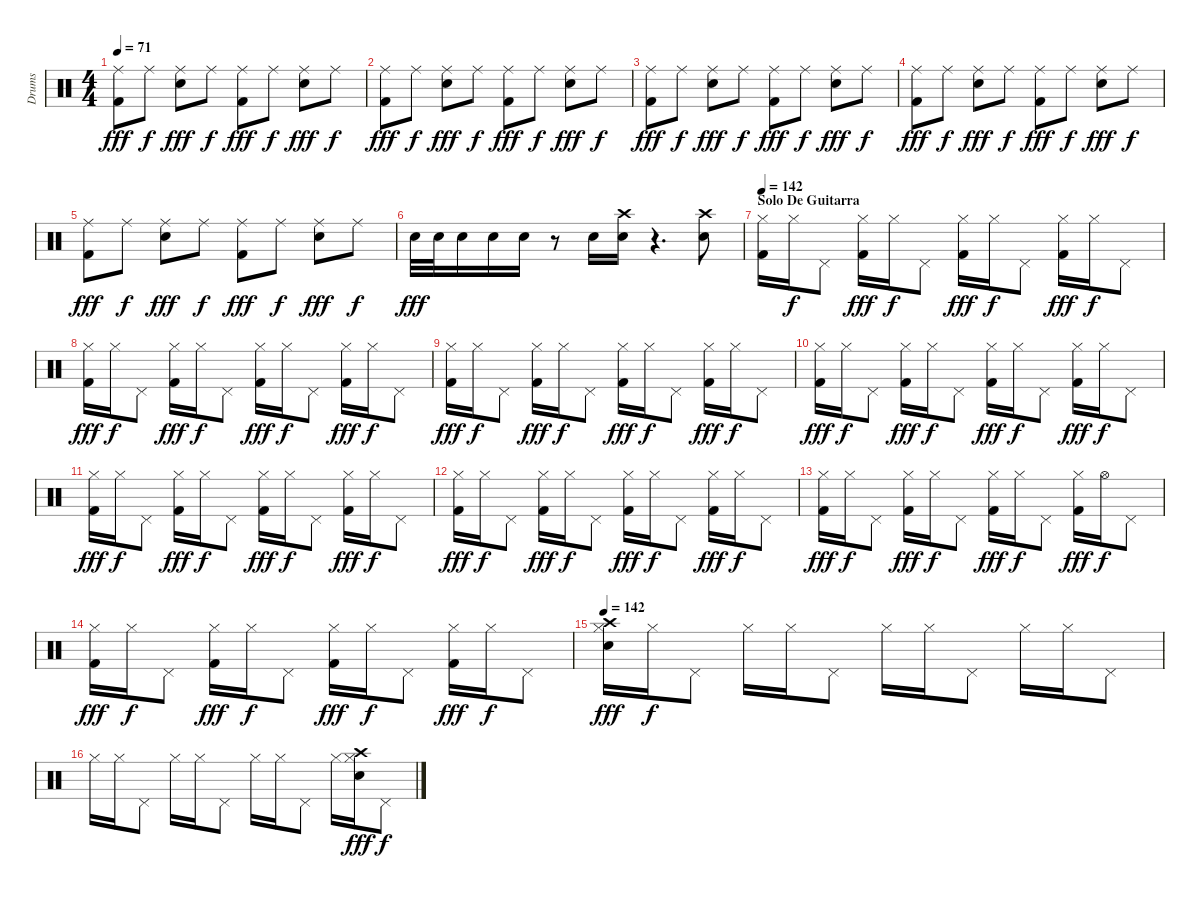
\track ("Drums" "Drums") {instrument percussion}
\staff {score}
\articulation defaults
\ts (4 4)
\tempo 71
\clef neutral
\ks c
("Ride (middle)" "Kick (hit) 2").8{dy fff} "Ride (middle)".8{dy f} ("Ride (middle)" "Electric Snare (hit)").8{dy fff} "Ride (middle)".8{dy f} ("Ride (middle)" "Kick (hit) 2").8{dy fff} "Ride (middle)".8{dy f} ("Ride (middle)" "Electric Snare (hit)").8{dy fff} "Ride (middle)".8{dy f} |
("Ride (middle)" "Kick (hit) 2").8{dy fff} "Ride (middle)".8{dy f} ("Ride (middle)" "Electric Snare (hit)").8{dy fff} "Ride (middle)".8{dy f} ("Ride (middle)" "Kick (hit) 2").8{dy fff} "Ride (middle)".8{dy f} ("Ride (middle)" "Electric Snare (hit)").8{dy fff} "Ride (middle)".8{dy f} |
("Ride (middle)" "Kick (hit) 2").8{dy fff} "Ride (middle)".8{dy f} ("Ride (middle)" "Electric Snare (hit)").8{dy fff} "Ride (middle)".8{dy f} ("Ride (middle)" "Kick (hit) 2").8{dy fff} "Ride (middle)".8{dy f} ("Ride (middle)" "Electric Snare (hit)").8{dy fff} "Ride (middle)".8{dy f} |
("Ride (middle)" "Kick (hit) 2").8{dy fff} "Ride (middle)".8{dy f} ("Ride (middle)" "Electric Snare (hit)").8{dy fff} "Ride (middle)".8{dy f} ("Ride (middle)" "Kick (hit) 2").8{dy fff} "Ride (middle)".8{dy f} ("Ride (middle)" "Electric Snare (hit)").8{dy fff} "Ride (middle)".8{dy f} |
("Ride (middle)" "Kick (hit) 2").8{dy fff} "Ride (middle)".8{dy f} ("Ride (middle)" "Electric Snare (hit)").8{dy fff} "Ride (middle)".8{dy f} ("Ride (middle)" "Kick (hit) 2").8{dy fff} "Ride (middle)".8{dy f} ("Ride (middle)" "Electric Snare (hit)").8{dy fff} "Ride (middle)".8{dy f} |
"Electric Snare (hit)".32{dy fff} "Electric Snare (hit)".32 "Electric Snare (hit)".16 "Electric Snare (hit)".16 "Electric Snare (hit)".16 r.8 "Electric Snare (hit)".16 ("Electric Snare (hit)" "Crash high (hit)").16 r.4{d} ("Electric Snare (hit)" "Crash high (hit)").8 |
\section ("" "Solo De Guitarra")
\tempo 142
("Hi-Hat (closed)" "Kick (hit) 2").16 "Hi-Hat (closed)".16{dy f} "Pedal Hi-Hat (hit)".8 ("Hi-Hat (closed)" "Kick (hit) 2").16{dy fff} "Hi-Hat (closed)".16{dy f} "Pedal Hi-Hat (hit)".8 ("Hi-Hat (closed)" "Kick (hit) 2").16{dy fff} "Hi-Hat (closed)".16{dy f} "Pedal Hi-Hat (hit)".8 ("Hi-Hat (closed)" "Kick (hit) 2").16{dy fff} "Hi-Hat (closed)".16{dy f} "Pedal Hi-Hat (hit)".8 |
("Hi-Hat (closed)" "Kick (hit) 2").16{dy fff} "Hi-Hat (closed)".16{dy f} "Pedal Hi-Hat (hit)".8 ("Hi-Hat (closed)" "Kick (hit) 2").16{dy fff} "Hi-Hat (closed)".16{dy f} "Pedal Hi-Hat (hit)".8 ("Hi-Hat (closed)" "Kick (hit) 2").16{dy fff} "Hi-Hat (closed)".16{dy f} "Pedal Hi-Hat (hit)".8 ("Hi-Hat (closed)" "Kick (hit) 2").16{dy fff} "Hi-Hat (closed)".16{dy f} "Pedal Hi-Hat (hit)".8 |
("Hi-Hat (closed)" "Kick (hit) 2").16{dy fff} "Hi-Hat (closed)".16{dy f} "Pedal Hi-Hat (hit)".8 ("Hi-Hat (closed)" "Kick (hit) 2").16{dy fff} "Hi-Hat (closed)".16{dy f} "Pedal Hi-Hat (hit)".8 ("Hi-Hat (closed)" "Kick (hit) 2").16{dy fff} "Hi-Hat (closed)".16{dy f} "Pedal Hi-Hat (hit)".8 ("Hi-Hat (closed)" "Kick (hit) 2").16{dy fff} "Hi-Hat (closed)".16{dy f} "Pedal Hi-Hat (hit)".8 |
("Hi-Hat (closed)" "Kick (hit) 2").16{dy fff} "Hi-Hat (closed)".16{dy f} "Pedal Hi-Hat (hit)".8 ("Hi-Hat (closed)" "Kick (hit) 2").16{dy fff} "Hi-Hat (closed)".16{dy f} "Pedal Hi-Hat (hit)".8 ("Hi-Hat (closed)" "Kick (hit) 2").16{dy fff} "Hi-Hat (closed)".16{dy f} "Pedal Hi-Hat (hit)".8 ("Hi-Hat (closed)" "Kick (hit) 2").16{dy fff} "Hi-Hat (closed)".16{dy f} "Pedal Hi-Hat (hit)".8 |
("Hi-Hat (closed)" "Kick (hit) 2").16{dy fff} "Hi-Hat (closed)".16{dy f} "Pedal Hi-Hat (hit)".8 ("Hi-Hat (closed)" "Kick (hit) 2").16{dy fff} "Hi-Hat (closed)".16{dy f} "Pedal Hi-Hat (hit)".8 ("Hi-Hat (closed)" "Kick (hit) 2").16{dy fff} "Hi-Hat (closed)".16{dy f} "Pedal Hi-Hat (hit)".8 ("Hi-Hat (closed)" "Kick (hit) 2").16{dy fff} "Hi-Hat (closed)".16{dy f} "Pedal Hi-Hat (hit)".8 |
("Hi-Hat (closed)" "Kick (hit) 2").16{dy fff} "Hi-Hat (closed)".16{dy f} "Pedal Hi-Hat (hit)".8 ("Hi-Hat (closed)" "Kick (hit) 2").16{dy fff} "Hi-Hat (closed)".16{dy f} "Pedal Hi-Hat (hit)".8 ("Hi-Hat (closed)" "Kick (hit) 2").16{dy fff} "Hi-Hat (closed)".16{dy f} "Pedal Hi-Hat (hit)".8 ("Hi-Hat (closed)" "Kick (hit) 2").16{dy fff} "Hi-Hat (closed)".16{dy f} "Pedal Hi-Hat (hit)".8 |
("Hi-Hat (closed)" "Kick (hit) 2").16{dy fff} "Hi-Hat (closed)".16{dy f} "Pedal Hi-Hat (hit)".8 ("Hi-Hat (closed)" "Kick (hit) 2").16{dy fff} "Hi-Hat (closed)".16{dy f} "Pedal Hi-Hat (hit)".8 ("Hi-Hat (closed)" "Kick (hit) 2").16{dy fff} "Hi-Hat (closed)".16{dy f} "Pedal Hi-Hat (hit)".8 ("Hi-Hat (closed)" "Kick (hit) 2").16{dy fff} "Hi-Hat (open)".16{dy f} "Pedal Hi-Hat (hit)".8 |
("Hi-Hat (closed)" "Kick (hit) 2").16{dy fff} "Hi-Hat (closed)".16{dy f} "Pedal Hi-Hat (hit)".8 ("Hi-Hat (closed)" "Kick (hit) 2").16{dy fff} "Hi-Hat (closed)".16{dy f} "Pedal Hi-Hat (hit)".8 ("Hi-Hat (closed)" "Kick (hit) 2").16{dy fff} "Hi-Hat (closed)".16{dy f} "Pedal Hi-Hat (hit)".8 ("Hi-Hat (closed)" "Kick (hit) 2").16{dy fff} "Hi-Hat (closed)".16{dy f} "Pedal Hi-Hat (hit)".8 |
\tempo 142
("Hi-Hat (closed)" "Electric Snare (hit)" "Crash high (hit)").16{dy fff} "Hi-Hat (closed)".16{dy f} "Pedal Hi-Hat (hit)".8 "Hi-Hat (closed)".16 "Hi-Hat (closed)".16 "Pedal Hi-Hat (hit)".8 "Hi-Hat (closed)".16 "Hi-Hat (closed)".16 "Pedal Hi-Hat (hit)".8 "Hi-Hat (closed)".16 "Hi-Hat (closed)".16 "Pedal Hi-Hat (hit)".8 |
"Hi-Hat (closed)".16 "Hi-Hat (closed)".16 "Pedal Hi-Hat (hit)".8 "Hi-Hat (closed)".16 "Hi-Hat (closed)".16 "Pedal Hi-Hat (hit)".8 "Hi-Hat (closed)".16 "Hi-Hat (closed)".16 "Pedal Hi-Hat (hit)".8 "Hi-Hat (closed)".16 ("Hi-Hat (closed)" "Electric Snare (hit)" "Crash high (hit)").16{dy fff} "Pedal Hi-Hat (hit)".8{dy f}
